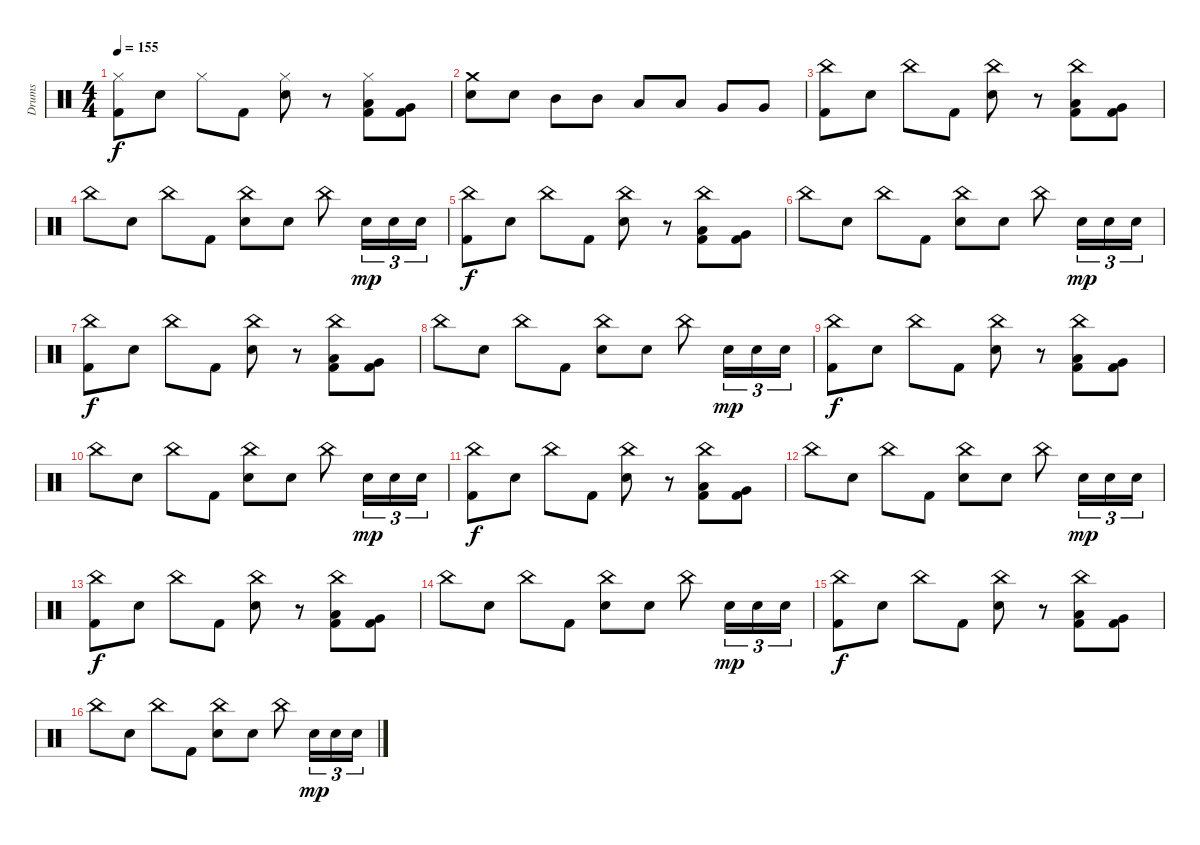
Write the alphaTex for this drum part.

\track ("Drums" "Drums") {instrument percussion}
\staff {score}
\articulation defaults
\ts (4 4)
\tempo 155
\clef neutral
\ks c
("Hi-Hat (closed)" "Kick (hit) 2").8{dy f} "Electric Snare (hit)".8 "Hi-Hat (closed)".8 "Kick (hit) 2".8 ("Hi-Hat (closed)" "Electric Snare (hit)").8 r.8 ("Hi-Hat (closed)" "Low Tom (hit)" "Kick (hit) 2").8 ("Very Low Tom (hit)" "Kick (hit) 2").8 |
("Crash medium (hit)" "Electric Snare (hit)").8 "Electric Snare (hit)".8 "Mid Tom (hit)".8 "Mid Tom (hit)".8 "Low Tom (hit)".8 "Low Tom (hit)".8 "Very Low Tom (hit)".8 "Very Low Tom (hit)".8 |
("China (hit)" "Kick (hit) 2").8 "Electric Snare (hit)".8 "China (hit)".8 "Kick (hit) 2".8 ("China (hit)" "Electric Snare (hit)").8 r.8 ("China (hit)" "Low Tom (hit)" "Kick (hit) 2").8 ("Very Low Tom (hit)" "Kick (hit) 2").8 |
"China (hit)".8 "Electric Snare (hit)".8 "China (hit)".8 "Kick (hit) 2".8 ("China (hit)" "Electric Snare (hit)").8 "Electric Snare (hit)".8 "China (hit)".8 "Electric Snare (hit)".16{tu (3 2) dy mp} "Electric Snare (hit)".16{tu (3 2)} "Electric Snare (hit)".16{tu (3 2)} |
("China (hit)" "Kick (hit) 2").8{dy f} "Electric Snare (hit)".8 "China (hit)".8 "Kick (hit) 2".8 ("China (hit)" "Electric Snare (hit)").8 r.8 ("China (hit)" "Low Tom (hit)" "Kick (hit) 2").8 ("Very Low Tom (hit)" "Kick (hit) 2").8 |
"China (hit)".8 "Electric Snare (hit)".8 "China (hit)".8 "Kick (hit) 2".8 ("China (hit)" "Electric Snare (hit)").8 "Electric Snare (hit)".8 "China (hit)".8 "Electric Snare (hit)".16{tu (3 2) dy mp} "Electric Snare (hit)".16{tu (3 2)} "Electric Snare (hit)".16{tu (3 2)} |
("China (hit)" "Kick (hit) 2").8{dy f} "Electric Snare (hit)".8 "China (hit)".8 "Kick (hit) 2".8 ("China (hit)" "Electric Snare (hit)").8 r.8 ("China (hit)" "Low Tom (hit)" "Kick (hit) 2").8 ("Very Low Tom (hit)" "Kick (hit) 2").8 |
"China (hit)".8 "Electric Snare (hit)".8 "China (hit)".8 "Kick (hit) 2".8 ("China (hit)" "Electric Snare (hit)").8 "Electric Snare (hit)".8 "China (hit)".8 "Electric Snare (hit)".16{tu (3 2) dy mp} "Electric Snare (hit)".16{tu (3 2)} "Electric Snare (hit)".16{tu (3 2)} |
("China (hit)" "Kick (hit) 2").8{dy f} "Electric Snare (hit)".8 "China (hit)".8 "Kick (hit) 2".8 ("China (hit)" "Electric Snare (hit)").8 r.8 ("China (hit)" "Low Tom (hit)" "Kick (hit) 2").8 ("Very Low Tom (hit)" "Kick (hit) 2").8 |
"China (hit)".8 "Electric Snare (hit)".8 "China (hit)".8 "Kick (hit) 2".8 ("China (hit)" "Electric Snare (hit)").8 "Electric Snare (hit)".8 "China (hit)".8 "Electric Snare (hit)".16{tu (3 2) dy mp} "Electric Snare (hit)".16{tu (3 2)} "Electric Snare (hit)".16{tu (3 2)} |
("China (hit)" "Kick (hit) 2").8{dy f} "Electric Snare (hit)".8 "China (hit)".8 "Kick (hit) 2".8 ("China (hit)" "Electric Snare (hit)").8 r.8 ("China (hit)" "Low Tom (hit)" "Kick (hit) 2").8 ("Very Low Tom (hit)" "Kick (hit) 2").8 |
"China (hit)".8 "Electric Snare (hit)".8 "China (hit)".8 "Kick (hit) 2".8 ("China (hit)" "Electric Snare (hit)").8 "Electric Snare (hit)".8 "China (hit)".8 "Electric Snare (hit)".16{tu (3 2) dy mp} "Electric Snare (hit)".16{tu (3 2)} "Electric Snare (hit)".16{tu (3 2)} |
("China (hit)" "Kick (hit) 2").8{dy f} "Electric Snare (hit)".8 "China (hit)".8 "Kick (hit) 2".8 ("China (hit)" "Electric Snare (hit)").8 r.8 ("China (hit)" "Low Tom (hit)" "Kick (hit) 2").8 ("Very Low Tom (hit)" "Kick (hit) 2").8 |
"China (hit)".8 "Electric Snare (hit)".8 "China (hit)".8 "Kick (hit) 2".8 ("China (hit)" "Electric Snare (hit)").8 "Electric Snare (hit)".8 "China (hit)".8 "Electric Snare (hit)".16{tu (3 2) dy mp} "Electric Snare (hit)".16{tu (3 2)} "Electric Snare (hit)".16{tu (3 2)} |
("China (hit)" "Kick (hit) 2").8{dy f} "Electric Snare (hit)".8 "China (hit)".8 "Kick (hit) 2".8 ("China (hit)" "Electric Snare (hit)").8 r.8 ("China (hit)" "Low Tom (hit)" "Kick (hit) 2").8 ("Very Low Tom (hit)" "Kick (hit) 2").8 |
"China (hit)".8 "Electric Snare (hit)".8 "China (hit)".8 "Kick (hit) 2".8 ("China (hit)" "Electric Snare (hit)").8 "Electric Snare (hit)".8 "China (hit)".8 "Electric Snare (hit)".16{tu (3 2) dy mp} "Electric Snare (hit)".16{tu (3 2)} "Electric Snare (hit)".16{tu (3 2)}
